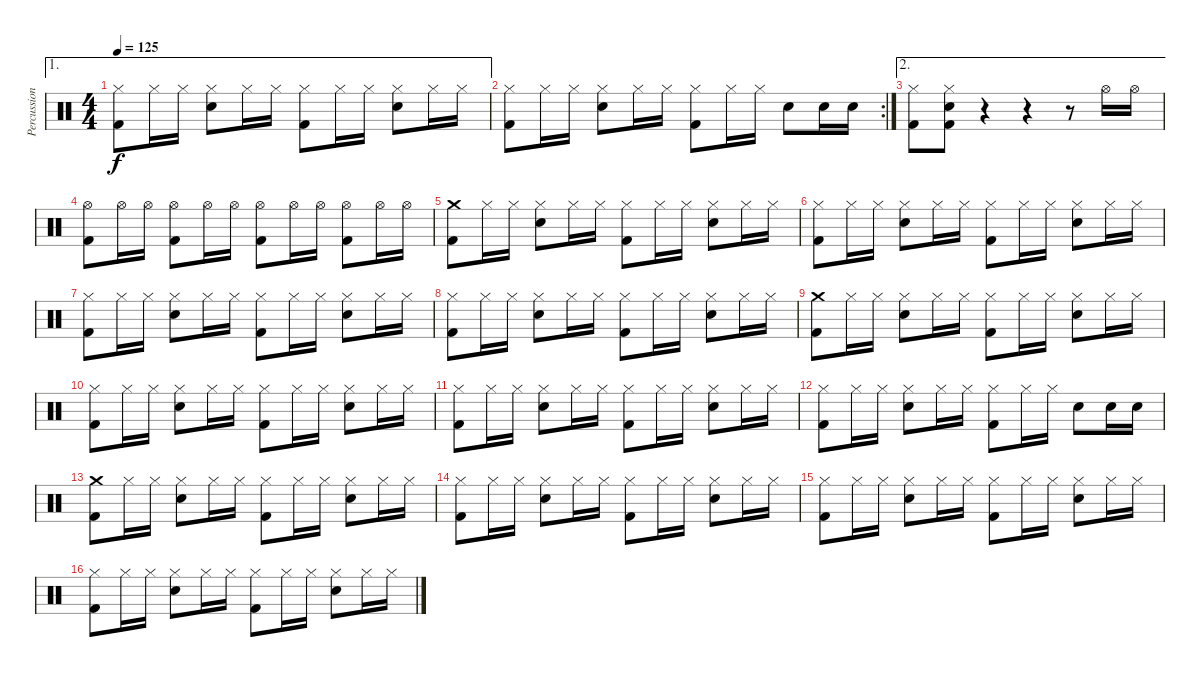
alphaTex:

\track ("Percussion" "Percussion") {instrument percussion}
\staff {score}
\articulation defaults
\ae 1
\ts (4 4)
\tempo 125
\clef neutral
\ks c
("Hi-Hat (closed)" "Kick (hit) 2").8{dy f} "Hi-Hat (closed)".16 "Hi-Hat (closed)".16 ("Hi-Hat (closed)" "Snare (hit) 2").8 "Hi-Hat (closed)".16 "Hi-Hat (closed)".16 ("Hi-Hat (closed)" "Kick (hit) 2").8 "Hi-Hat (closed)".16 "Hi-Hat (closed)".16 ("Hi-Hat (closed)" "Snare (hit) 2").8 "Hi-Hat (closed)".16 "Hi-Hat (closed)".16 |
\rc 2
("Hi-Hat (closed)" "Kick (hit) 2").8 "Hi-Hat (closed)".16 "Hi-Hat (closed)".16 ("Hi-Hat (closed)" "Snare (hit) 2").8 "Hi-Hat (closed)".16 "Hi-Hat (closed)".16 ("Hi-Hat (closed)" "Kick (hit) 2").8 "Hi-Hat (closed)".16 "Hi-Hat (closed)".16 "Snare (hit) 2".8 "Snare (hit) 2".16 "Snare (hit) 2".16 |
\ae 2
("Hi-Hat (closed)" "Kick (hit) 2").8 ("Hi-Hat (closed)" "Snare (hit) 2" "Kick (hit) 2").8 r.4 r.4 r.8 "Hi-Hat (open)".16 "Hi-Hat (open)".16 |
("Hi-Hat (open)" "Kick (hit) 2").8 "Hi-Hat (open)".16 "Hi-Hat (open)".16 ("Hi-Hat (open)" "Kick (hit) 2").8 "Hi-Hat (open)".16 "Hi-Hat (open)".16 ("Hi-Hat (open)" "Kick (hit) 2").8 "Hi-Hat (open)".16 "Hi-Hat (open)".16 ("Hi-Hat (open)" "Kick (hit) 2").8 "Hi-Hat (open)".16 "Hi-Hat (open)".16 |
("Crash medium (hit)" "Kick (hit) 2").8 "Hi-Hat (closed)".16 "Hi-Hat (closed)".16 ("Hi-Hat (closed)" "Snare (hit) 2").8 "Hi-Hat (closed)".16 "Hi-Hat (closed)".16 ("Hi-Hat (closed)" "Kick (hit) 2").8 "Hi-Hat (closed)".16 "Hi-Hat (closed)".16 ("Hi-Hat (closed)" "Snare (hit) 2").8 "Hi-Hat (closed)".16 "Hi-Hat (closed)".16 |
("Hi-Hat (closed)" "Kick (hit) 2").8 "Hi-Hat (closed)".16 "Hi-Hat (closed)".16 ("Hi-Hat (closed)" "Snare (hit) 2").8 "Hi-Hat (closed)".16 "Hi-Hat (closed)".16 ("Hi-Hat (closed)" "Kick (hit) 2").8 "Hi-Hat (closed)".16 "Hi-Hat (closed)".16 ("Hi-Hat (closed)" "Snare (hit) 2").8 "Hi-Hat (closed)".16 "Hi-Hat (closed)".16 |
("Hi-Hat (closed)" "Kick (hit) 2").8 "Hi-Hat (closed)".16 "Hi-Hat (closed)".16 ("Hi-Hat (closed)" "Snare (hit) 2").8 "Hi-Hat (closed)".16 "Hi-Hat (closed)".16 ("Hi-Hat (closed)" "Kick (hit) 2").8 "Hi-Hat (closed)".16 "Hi-Hat (closed)".16 ("Hi-Hat (closed)" "Snare (hit) 2").8 "Hi-Hat (closed)".16 "Hi-Hat (closed)".16 |
("Hi-Hat (closed)" "Kick (hit) 2").8 "Hi-Hat (closed)".16 "Hi-Hat (closed)".16 ("Hi-Hat (closed)" "Snare (hit) 2").8 "Hi-Hat (closed)".16 "Hi-Hat (closed)".16 ("Hi-Hat (closed)" "Kick (hit) 2").8 "Hi-Hat (closed)".16 "Hi-Hat (closed)".16 ("Hi-Hat (closed)" "Snare (hit) 2").8 "Hi-Hat (closed)".16 "Hi-Hat (closed)".16 |
("Crash medium (hit)" "Kick (hit) 2").8 "Hi-Hat (closed)".16 "Hi-Hat (closed)".16 ("Hi-Hat (closed)" "Snare (hit) 2").8 "Hi-Hat (closed)".16 "Hi-Hat (closed)".16 ("Hi-Hat (closed)" "Kick (hit) 2").8 "Hi-Hat (closed)".16 "Hi-Hat (closed)".16 ("Hi-Hat (closed)" "Snare (hit) 2").8 "Hi-Hat (closed)".16 "Hi-Hat (closed)".16 |
("Hi-Hat (closed)" "Kick (hit) 2").8 "Hi-Hat (closed)".16 "Hi-Hat (closed)".16 ("Hi-Hat (closed)" "Snare (hit) 2").8 "Hi-Hat (closed)".16 "Hi-Hat (closed)".16 ("Hi-Hat (closed)" "Kick (hit) 2").8 "Hi-Hat (closed)".16 "Hi-Hat (closed)".16 ("Hi-Hat (closed)" "Snare (hit) 2").8 "Hi-Hat (closed)".16 "Hi-Hat (closed)".16 |
("Hi-Hat (closed)" "Kick (hit) 2").8 "Hi-Hat (closed)".16 "Hi-Hat (closed)".16 ("Hi-Hat (closed)" "Snare (hit) 2").8 "Hi-Hat (closed)".16 "Hi-Hat (closed)".16 ("Hi-Hat (closed)" "Kick (hit) 2").8 "Hi-Hat (closed)".16 "Hi-Hat (closed)".16 ("Hi-Hat (closed)" "Snare (hit) 2").8 "Hi-Hat (closed)".16 "Hi-Hat (closed)".16 |
("Hi-Hat (closed)" "Kick (hit) 2").8 "Hi-Hat (closed)".16 "Hi-Hat (closed)".16 ("Hi-Hat (closed)" "Snare (hit) 2").8 "Hi-Hat (closed)".16 "Hi-Hat (closed)".16 ("Hi-Hat (closed)" "Kick (hit) 2").8 "Hi-Hat (closed)".16 "Hi-Hat (closed)".16 "Snare (hit) 2".8 "Snare (hit) 2".16 "Snare (hit) 2".16 |
("Crash medium (hit)" "Kick (hit) 2").8 "Hi-Hat (closed)".16 "Hi-Hat (closed)".16 ("Hi-Hat (closed)" "Snare (hit) 2").8 "Hi-Hat (closed)".16 "Hi-Hat (closed)".16 ("Hi-Hat (closed)" "Kick (hit) 2").8 "Hi-Hat (closed)".16 "Hi-Hat (closed)".16 ("Hi-Hat (closed)" "Snare (hit) 2").8 "Hi-Hat (closed)".16 "Hi-Hat (closed)".16 |
("Hi-Hat (closed)" "Kick (hit) 2").8 "Hi-Hat (closed)".16 "Hi-Hat (closed)".16 ("Hi-Hat (closed)" "Snare (hit) 2").8 "Hi-Hat (closed)".16 "Hi-Hat (closed)".16 ("Hi-Hat (closed)" "Kick (hit) 2").8 "Hi-Hat (closed)".16 "Hi-Hat (closed)".16 ("Hi-Hat (closed)" "Snare (hit) 2").8 "Hi-Hat (closed)".16 "Hi-Hat (closed)".16 |
("Hi-Hat (closed)" "Kick (hit) 2").8 "Hi-Hat (closed)".16 "Hi-Hat (closed)".16 ("Hi-Hat (closed)" "Snare (hit) 2").8 "Hi-Hat (closed)".16 "Hi-Hat (closed)".16 ("Hi-Hat (closed)" "Kick (hit) 2").8 "Hi-Hat (closed)".16 "Hi-Hat (closed)".16 ("Hi-Hat (closed)" "Snare (hit) 2").8 "Hi-Hat (closed)".16 "Hi-Hat (closed)".16 |
("Hi-Hat (closed)" "Kick (hit) 2").8 "Hi-Hat (closed)".16 "Hi-Hat (closed)".16 ("Hi-Hat (closed)" "Snare (hit) 2").8 "Hi-Hat (closed)".16 "Hi-Hat (closed)".16 ("Hi-Hat (closed)" "Kick (hit) 2").8 "Hi-Hat (closed)".16 "Hi-Hat (closed)".16 ("Hi-Hat (closed)" "Snare (hit) 2").8 "Hi-Hat (closed)".16 "Hi-Hat (closed)".16
